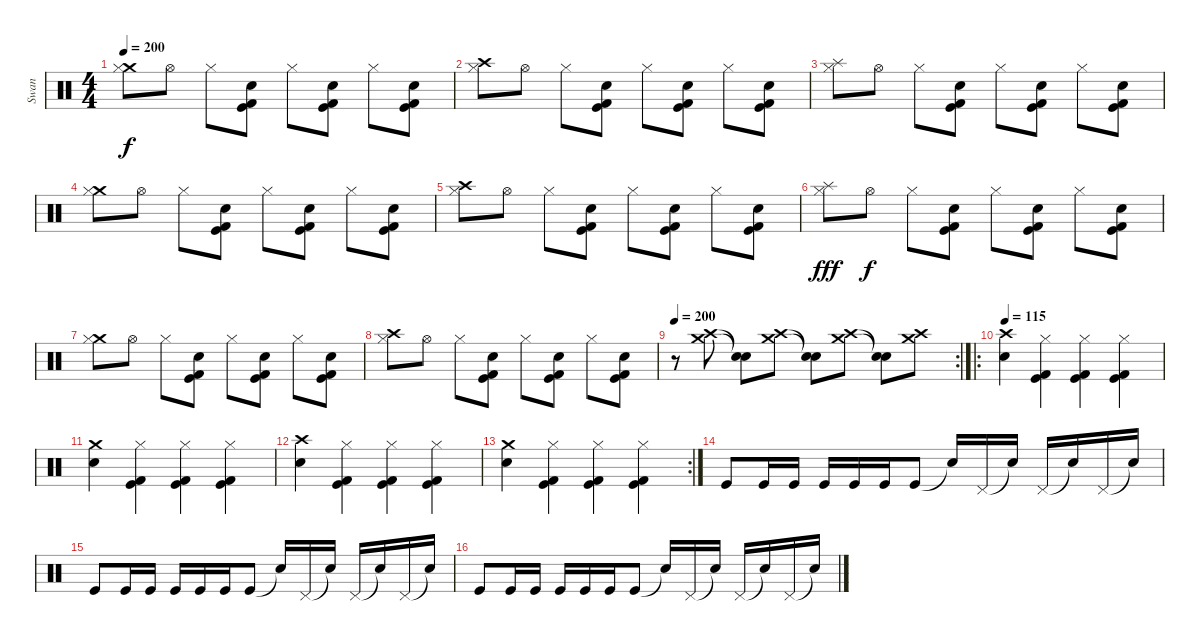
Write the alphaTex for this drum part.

\track ("Swan" "Swan") {instrument percussion}
\staff {score}
\articulation defaults
\ts (4 4)
\tempo 200
\clef neutral
\ks c
("Crash medium (hit)" "Hi-Hat (closed)").8{dy f} "Hi-Hat (open)".8 "Hi-Hat (closed)".8 ("Kick (hit)" "Kick (hit) 2" "Snare (hit) 2").8 "Hi-Hat (closed)".8 ("Kick (hit)" "Kick (hit) 2" "Snare (hit) 2").8 "Hi-Hat (closed)".8 ("Kick (hit)" "Kick (hit) 2" "Snare (hit) 2").8 |
("Crash high (hit)" "Hi-Hat (closed)").8 "Hi-Hat (open)".8 "Hi-Hat (closed)".8 ("Kick (hit)" "Kick (hit) 2" "Snare (hit) 2").8 "Hi-Hat (closed)".8 ("Kick (hit)" "Kick (hit) 2" "Snare (hit) 2").8 "Hi-Hat (closed)".8 ("Kick (hit)" "Kick (hit) 2" "Snare (hit) 2").8 |
("Splash (hit)" "Hi-Hat (closed)").8 "Hi-Hat (open)".8 "Hi-Hat (closed)".8 ("Kick (hit)" "Kick (hit) 2" "Snare (hit) 2").8 "Hi-Hat (closed)".8 ("Kick (hit)" "Kick (hit) 2" "Snare (hit) 2").8 "Hi-Hat (closed)".8 ("Kick (hit)" "Kick (hit) 2" "Snare (hit) 2").8 |
("Crash medium (hit)" "Hi-Hat (closed)").8 "Hi-Hat (open)".8 "Hi-Hat (closed)".8 ("Kick (hit)" "Kick (hit) 2" "Snare (hit) 2").8 "Hi-Hat (closed)".8 ("Kick (hit)" "Kick (hit) 2" "Snare (hit) 2").8 "Hi-Hat (closed)".8 ("Kick (hit)" "Kick (hit) 2" "Snare (hit) 2").8 |
("Crash high (hit)" "Hi-Hat (closed)").8 "Hi-Hat (open)".8 "Hi-Hat (closed)".8 ("Kick (hit)" "Kick (hit) 2" "Snare (hit) 2").8 "Hi-Hat (closed)".8 ("Kick (hit)" "Kick (hit) 2" "Snare (hit) 2").8 "Hi-Hat (closed)".8 ("Kick (hit)" "Kick (hit) 2" "Snare (hit) 2").8 |
("Splash (hit)" "Hi-Hat (closed)").8{dy fff} "Hi-Hat (open)".8{dy f} "Hi-Hat (closed)".8 ("Kick (hit)" "Kick (hit) 2" "Snare (hit) 2").8 "Hi-Hat (closed)".8 ("Kick (hit)" "Kick (hit) 2" "Snare (hit) 2").8 "Hi-Hat (closed)".8 ("Kick (hit)" "Kick (hit) 2" "Snare (hit) 2").8 |
("Crash medium (hit)" "Hi-Hat (closed)").8 "Hi-Hat (open)".8 "Hi-Hat (closed)".8 ("Kick (hit)" "Kick (hit) 2" "Snare (hit) 2").8 "Hi-Hat (closed)".8 ("Kick (hit)" "Kick (hit) 2" "Snare (hit) 2").8 "Hi-Hat (closed)".8 ("Kick (hit)" "Kick (hit) 2" "Snare (hit) 2").8 |
("Crash high (hit)" "Hi-Hat (closed)").8 "Hi-Hat (open)".8 "Hi-Hat (closed)".8 ("Kick (hit)" "Kick (hit) 2" "Snare (hit) 2").8 "Hi-Hat (closed)".8 ("Kick (hit)" "Kick (hit) 2" "Snare (hit) 2").8 "Hi-Hat (closed)".8 ("Kick (hit)" "Kick (hit) 2" "Snare (hit) 2").8 |
\rc 2
\tempo 115
\tempo 200
r.8 ("Crash high (hit)" "Crash medium (hit)").8 ("Snare (hit)"{t} "Snare (hit)"{t}).8 ("Crash medium (hit)" "Crash high (hit)").8 ("Snare (hit)"{t} "Snare (hit)"{t}).8 ("Crash medium (hit)" "Crash high (hit)").8 ("Snare (hit)"{t} "Snare (hit)"{t}).8 ("Crash high (hit)" "Crash medium (hit)").8 |
\ro
\tempo 115
("Crash high (hit)" "Snare (hit)").4 ("Kick (hit) 2" "Kick (hit)" "Hi-Hat (closed)").4 ("Kick (hit) 2" "Kick (hit)" "Hi-Hat (closed)").4 ("Kick (hit) 2" "Kick (hit)" "Hi-Hat (closed)").4 |
("Crash medium (hit)" "Snare (hit)").4 ("Kick (hit) 2" "Kick (hit)" "Hi-Hat (closed)").4 ("Kick (hit) 2" "Kick (hit)" "Hi-Hat (closed)").4 ("Kick (hit) 2" "Kick (hit)" "Hi-Hat (closed)").4 |
("Crash high (hit)" "Snare (hit)").4 ("Kick (hit) 2" "Kick (hit)" "Hi-Hat (closed)").4 ("Kick (hit) 2" "Kick (hit)" "Hi-Hat (closed)").4 ("Kick (hit) 2" "Kick (hit)" "Hi-Hat (closed)").4 |
\rc 2
("Crash medium (hit)" "Snare (hit)").4 ("Kick (hit) 2" "Kick (hit)" "Hi-Hat (closed)").4 ("Kick (hit) 2" "Kick (hit)" "Hi-Hat (closed)").4 ("Kick (hit) 2" "Kick (hit)" "Hi-Hat (closed)").4 |
"Kick (hit)".8 "Kick (hit)".16 "Kick (hit)".16 "Kick (hit)".16 "Kick (hit)".16 "Kick (hit)".16 "Kick (hit)".8 "Snare (hit)"{t}.16 "Pedal Hi-Hat (hit)".16 "Snare (hit)"{t}.16 "Pedal Hi-Hat (hit)".16 "Snare (hit)"{t}.16 "Pedal Hi-Hat (hit)".16 "Snare (hit)"{t}.16 |
"Kick (hit)".8 "Kick (hit)".16 "Kick (hit)".16 "Kick (hit)".16 "Kick (hit)".16 "Kick (hit)".16 "Kick (hit)".8 "Snare (hit)"{t}.16 "Pedal Hi-Hat (hit)".16 "Snare (hit)"{t}.16 "Pedal Hi-Hat (hit)".16 "Snare (hit)"{t}.16 "Pedal Hi-Hat (hit)".16 "Snare (hit)"{t}.16 |
"Kick (hit)".8 "Kick (hit)".16 "Kick (hit)".16 "Kick (hit)".16 "Kick (hit)".16 "Kick (hit)".16 "Kick (hit)".8 "Snare (hit)"{t}.16 "Pedal Hi-Hat (hit)".16 "Snare (hit)"{t}.16 "Pedal Hi-Hat (hit)".16 "Snare (hit)"{t}.16 "Pedal Hi-Hat (hit)".16 "Snare (hit)"{t}.16
